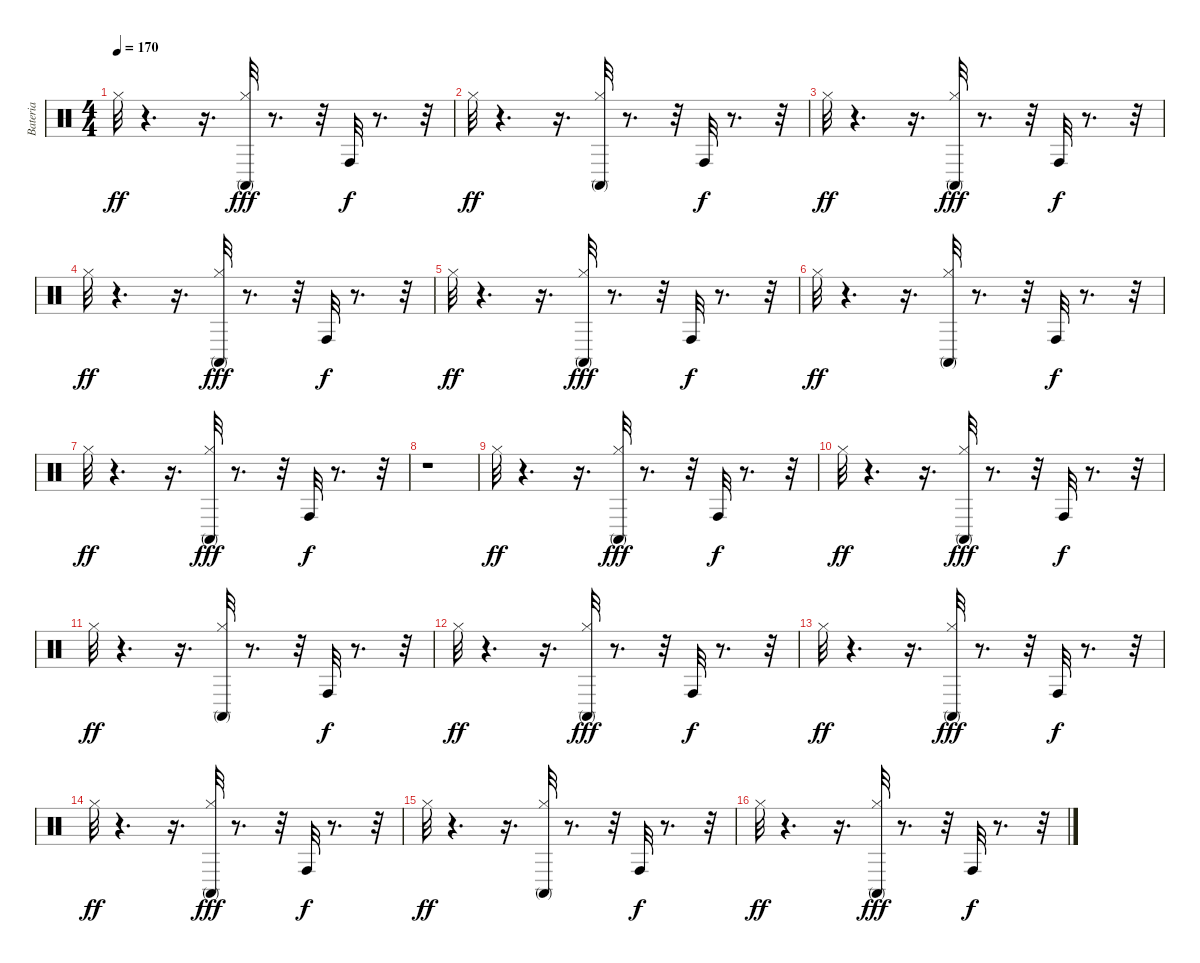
\track ("Bateria" "Bateria") {instrument percussion}
\staff {score}
\articulation defaults
\ts (4 4)
\tempo 170
\clef neutral
\ks c "Hi-Hat (closed)".32{dy ff}
r.4{d} r.16{d} ("Hi-Hat (closed)" "Conga high (mute)").32{dy fff} r.8{d} r.32 "Conga high (hit)".32{dy f} r.8{d} r.32 |
"Hi-Hat (closed)".32{dy ff} r.4{d} r.16{d} ("Conga high (mute)" "Hi-Hat (closed)").32 r.8{d} r.32 "Conga high (hit)".32{dy f} r.8{d} r.32 |
"Hi-Hat (closed)".32{dy ff} r.4{d} r.16{d} ("Hi-Hat (closed)" "Conga high (mute)").32{dy fff} r.8{d} r.32 "Conga high (hit)".32{dy f} r.8{d} r.32 |
"Hi-Hat (closed)".32{dy ff} r.4{d} r.16{d} ("Hi-Hat (closed)" "Conga high (mute)").32{dy fff} r.8{d} r.32 "Conga high (hit)".32{dy f} r.8{d} r.32 |
"Hi-Hat (closed)".32{dy ff} r.4{d} r.16{d} ("Hi-Hat (closed)" "Conga high (mute)").32{dy fff} r.8{d} r.32 "Conga high (hit)".32{dy f} r.8{d} r.32 |
"Hi-Hat (closed)".32{dy ff} r.4{d} r.16{d} ("Conga high (mute)" "Hi-Hat (closed)").32 r.8{d} r.32 "Conga high (hit)".32{dy f} r.8{d} r.32 |
"Hi-Hat (closed)".32{dy ff} r.4{d} r.16{d} ("Hi-Hat (closed)" "Conga high (mute)").32{dy fff} r.8{d} r.32 "Conga high (hit)".32{dy f} r.8{d} r.32 |
r.1 |
"Hi-Hat (closed)".32{dy ff} r.4{d} r.16{d} ("Hi-Hat (closed)" "Conga high (mute)").32{dy fff} r.8{d} r.32 "Conga high (hit)".32{dy f} r.8{d} r.32 |
"Hi-Hat (closed)".32{dy ff} r.4{d} r.16{d} ("Hi-Hat (closed)" "Conga high (mute)").32{dy fff} r.8{d} r.32 "Conga high (hit)".32{dy f} r.8{d} r.32 |
"Hi-Hat (closed)".32{dy ff} r.4{d} r.16{d} ("Conga high (mute)" "Hi-Hat (closed)").32 r.8{d} r.32 "Conga high (hit)".32{dy f} r.8{d} r.32 |
"Hi-Hat (closed)".32{dy ff} r.4{d} r.16{d} ("Hi-Hat (closed)" "Conga high (mute)").32{dy fff} r.8{d} r.32 "Conga high (hit)".32{dy f} r.8{d} r.32 |
"Hi-Hat (closed)".32{dy ff} r.4{d} r.16{d} ("Hi-Hat (closed)" "Conga high (mute)").32{dy fff} r.8{d} r.32 "Conga high (hit)".32{dy f} r.8{d} r.32 |
"Hi-Hat (closed)".32{dy ff} r.4{d} r.16{d} ("Hi-Hat (closed)" "Conga high (mute)").32{dy fff} r.8{d} r.32 "Conga high (hit)".32{dy f} r.8{d} r.32 |
"Hi-Hat (closed)".32{dy ff} r.4{d} r.16{d} ("Conga high (mute)" "Hi-Hat (closed)").32 r.8{d} r.32 "Conga high (hit)".32{dy f} r.8{d} r.32 |
"Hi-Hat (closed)".32{dy ff} r.4{d} r.16{d} ("Hi-Hat (closed)" "Conga high (mute)").32{dy fff} r.8{d} r.32 "Conga high (hit)".32{dy f} r.8{d} r.32
